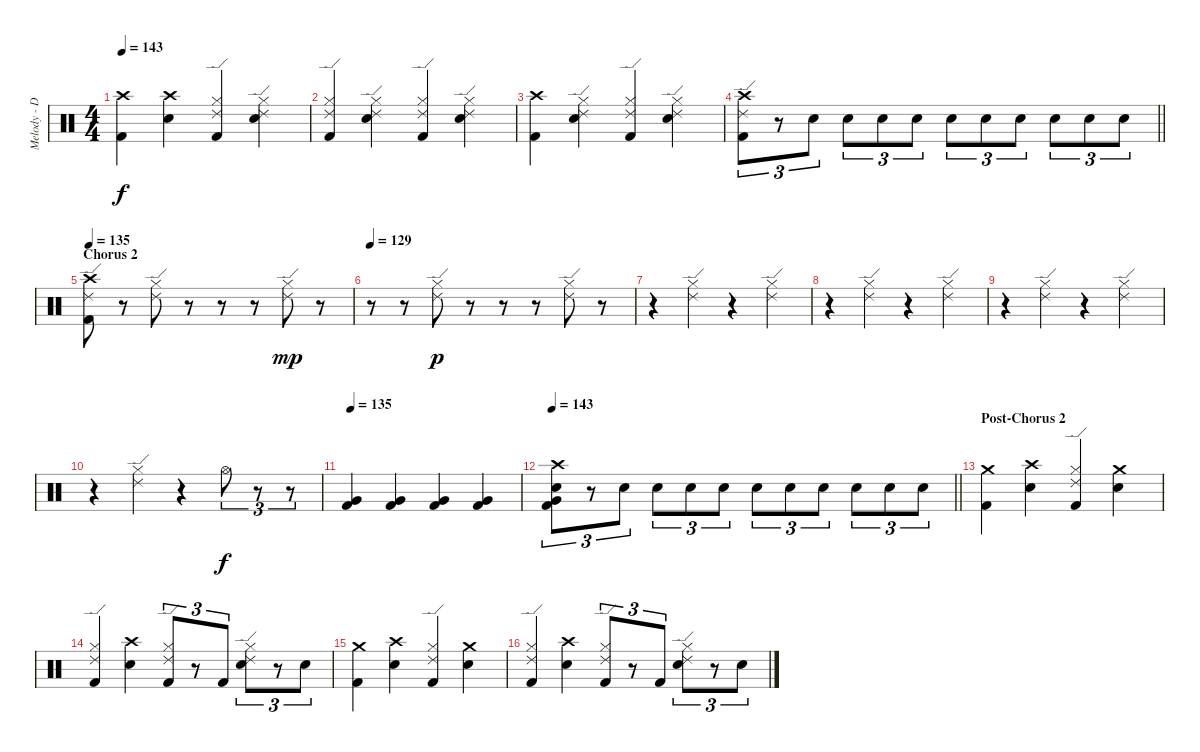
\track ("Melody - Drums" "Melody - D") {instrument percussion}
\staff {score}
\articulation defaults
\ts (4 4)
\tempo 143
\clef neutral
\ks c
("Crash high (hit)" "Kick (hit) 2").4{dy f} ("Crash high (hit)" "Electric Snare (hit)").4 ("Hi-Hat (closed)" "Ride (edge) 2" "Kick (hit) 2").4 ("Hi-Hat (closed)" "Ride (edge) 2" "Electric Snare (hit)").4 |
("Hi-Hat (closed)" "Ride (edge) 2" "Kick (hit) 2").4 ("Hi-Hat (closed)" "Ride (edge) 2" "Electric Snare (hit)").4 ("Hi-Hat (closed)" "Ride (edge) 2" "Kick (hit) 2").4 ("Hi-Hat (closed)" "Ride (edge) 2" "Electric Snare (hit)").4 |
("Crash high (hit)" "Kick (hit) 2").4 ("Hi-Hat (closed)" "Ride (edge) 2" "Electric Snare (hit)").4 ("Hi-Hat (closed)" "Ride (edge) 2" "Kick (hit) 2").4 ("Hi-Hat (closed)" "Ride (edge) 2" "Electric Snare (hit)").4 |
\barLineRight lightlight
("Crash high (hit)" "Ride (edge) 2" "Kick (hit) 2").8{tu (3 2)} r.8{tu (3 2)} "Electric Snare (hit)".8{tu (3 2)} "Electric Snare (hit)".8{tu (3 2)} "Electric Snare (hit)".8{tu (3 2)} "Electric Snare (hit)".8{tu (3 2)} "Electric Snare (hit)".8{tu (3 2)} "Electric Snare (hit)".8{tu (3 2)} "Electric Snare (hit)".8{tu (3 2)} "Electric Snare (hit)".8{tu (3 2)} "Electric Snare (hit)".8{tu (3 2)} "Electric Snare (hit)".8{tu (3 2)} |
\section ("" "Chorus 2")
\tempo 135
("Crash high (hit)" "Ride (edge) 2" "Kick (hit) 2").8 r.8 ("Hi-Hat (closed)" "Ride (edge) 2").8 r.8 r.8 r.8 ("Hi-Hat (closed)" "Ride (edge) 2").8{dy mp} r.8 |
\tempo 129
r.8 r.8 ("Hi-Hat (closed)" "Ride (edge) 2").8{dy p} r.8 r.8 r.8 ("Hi-Hat (closed)" "Ride (edge) 2").8 r.8 |
r.4 ("Hi-Hat (closed)" "Ride (edge) 2").4 r.4 ("Hi-Hat (closed)" "Ride (edge) 2").4 |
r.4 ("Hi-Hat (closed)" "Ride (edge) 2").4 r.4 ("Hi-Hat (closed)" "Ride (edge) 2").4 |
r.4 ("Hi-Hat (closed)" "Ride (edge) 2").4 r.4 ("Hi-Hat (closed)" "Ride (edge) 2").4 |
r.4 ("Hi-Hat (closed)" "Ride (edge) 2").4 r.4 "Hi-Hat (open)".8{tu (3 2) dy f} r.8{tu (3 2)} r.8{tu (3 2)} |
\tempo 135
("Very Low Tom (hit)" "Kick (hit) 2").4 ("Very Low Tom (hit)" "Kick (hit) 2").4 ("Very Low Tom (hit)" "Kick (hit) 2").4 ("Very Low Tom (hit)" "Kick (hit) 2").4 |
\tempo 143
\barLineRight lightlight
("Crash high (hit)" "Electric Snare (hit)" "Very Low Tom (hit)" "Kick (hit) 2").8{tu (3 2)} r.8{tu (3 2)} "Electric Snare (hit)".8{tu (3 2)} "Electric Snare (hit)".8{tu (3 2)} "Electric Snare (hit)".8{tu (3 2)} "Electric Snare (hit)".8{tu (3 2)} "Electric Snare (hit)".8{tu (3 2)} "Electric Snare (hit)".8{tu (3 2)} "Electric Snare (hit)".8{tu (3 2)} "Electric Snare (hit)".8{tu (3 2)} "Electric Snare (hit)".8{tu (3 2)} "Electric Snare (hit)".8{tu (3 2)} |
\section ("" "Post-Chorus 2")
("Crash medium (hit)" "Kick (hit) 2").4 ("Crash high (hit)" "Electric Snare (hit)").4 ("Hi-Hat (closed)" "Ride (edge) 2" "Kick (hit) 2").4 ("Crash medium (hit)" "Electric Snare (hit)").4 |
("Hi-Hat (closed)" "Ride (edge) 2" "Kick (hit) 2").4 ("Crash high (hit)" "Electric Snare (hit)").4 ("Hi-Hat (closed)" "Ride (edge) 2" "Kick (hit) 2").8{tu (3 2)} r.8{tu (3 2)} "Kick (hit) 2".8{tu (3 2)} ("Hi-Hat (closed)" "Ride (edge) 2" "Electric Snare (hit)").8{tu (3 2)} r.8{tu (3 2)} "Electric Snare (hit)".8{tu (3 2)} |
("Crash medium (hit)" "Kick (hit) 2").4 ("Crash high (hit)" "Electric Snare (hit)").4 ("Hi-Hat (closed)" "Ride (edge) 2" "Kick (hit) 2").4 ("Crash medium (hit)" "Electric Snare (hit)").4 |
("Hi-Hat (closed)" "Ride (edge) 2" "Kick (hit) 2").4 ("Crash high (hit)" "Electric Snare (hit)").4 ("Hi-Hat (closed)" "Ride (edge) 2" "Kick (hit) 2").8{tu (3 2)} r.8{tu (3 2)} "Kick (hit) 2".8{tu (3 2)} ("Hi-Hat (closed)" "Ride (edge) 2" "Electric Snare (hit)").8{tu (3 2)} r.8{tu (3 2)} "Electric Snare (hit)".8{tu (3 2)}
